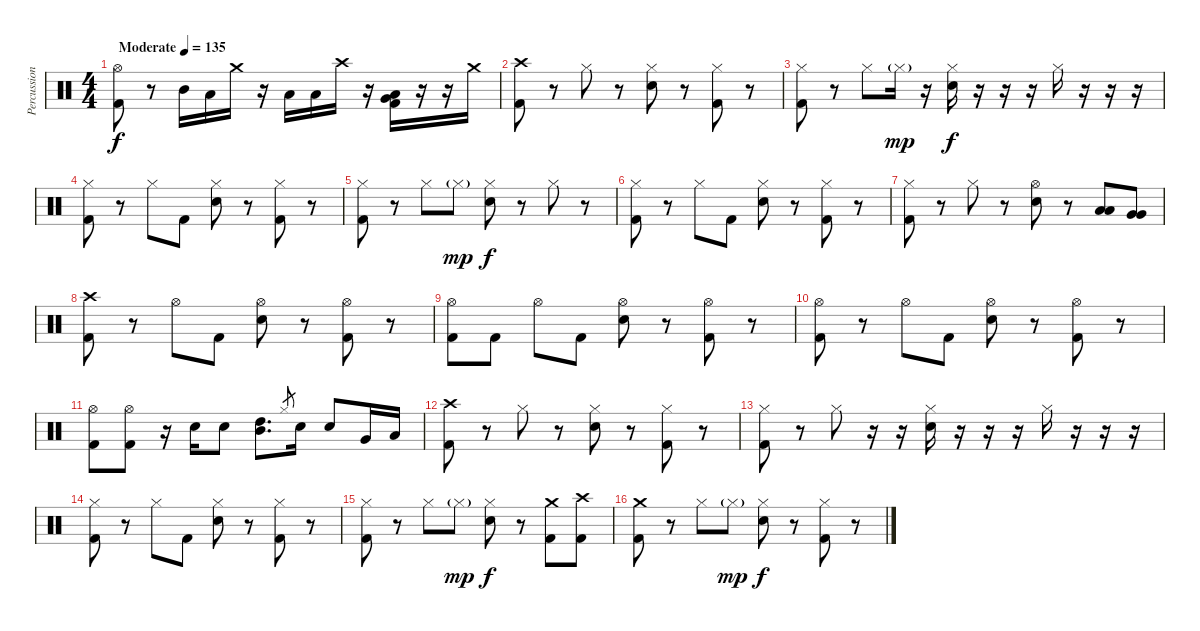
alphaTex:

\track ("Percussion" "Percussion") {instrument percussion}
\staff {score}
\articulation defaults
\ts (4 4)
\tempo (135 "Moderate")
\clef neutral
\ks c
("Hi-Hat (open)" "Kick (hit) 2").8{dy f} r.8 "Mid Tom (hit)".16 "Low Tom (hit)".16 "Crash medium (hit)".16 r.16 "Low Tom (hit)".16 "Low Tom (hit)".16 "Crash high (hit)".16 r.16 ("Low Tom (hit)" "Very Low Tom (hit)" "Kick (hit) 2").16 r.16 r.16 "Crash medium (hit)".16 |
("Crash high (hit)" "Kick (hit) 2").8 r.8 "Hi-Hat (closed)".8 r.8 ("Hi-Hat (closed)" "Electric Snare (hit)").8 r.8 ("Hi-Hat (closed)" "Kick (hit) 2").8 r.8 |
("Hi-Hat (closed)" "Kick (hit) 2").8 r.8 "Hi-Hat (closed)".8 "Hi-Hat (closed)"{g}.16{dy mp} r.16 ("Hi-Hat (closed)" "Electric Snare (hit)").16{dy f} r.16 r.16 r.16 "Hi-Hat (closed)".16 r.16 r.16 r.16 |
("Hi-Hat (closed)" "Kick (hit) 2").8 r.8 "Hi-Hat (closed)".8 "Kick (hit) 2".8 ("Hi-Hat (closed)" "Electric Snare (hit)").8 r.8 ("Hi-Hat (closed)" "Kick (hit) 2").8 r.8 |
("Hi-Hat (closed)" "Kick (hit) 2").8 r.8 "Hi-Hat (closed)".8 "Hi-Hat (closed)"{g}.8{dy mp} ("Hi-Hat (closed)" "Electric Snare (hit)").8{dy f} r.8 "Hi-Hat (closed)".8 r.8 |
("Hi-Hat (closed)" "Kick (hit) 2").8 r.8 "Hi-Hat (closed)".8 "Kick (hit) 2".8 ("Hi-Hat (closed)" "Electric Snare (hit)").8 r.8 ("Hi-Hat (closed)" "Kick (hit) 2").8 r.8 |
("Hi-Hat (closed)" "Kick (hit) 2").8 r.8 "Hi-Hat (closed)".8 r.8 ("Hi-Hat (open)" "Electric Snare (hit)").8 r.8 ("Low Tom (hit)" "Low Tom (hit)").8 ("Very Low Tom (hit)" "Very Low Tom (hit)").8 |
("Crash high (hit)" "Kick (hit) 2").8 r.8 "Hi-Hat (open)".8 "Kick (hit) 2".8 ("Hi-Hat (open)" "Electric Snare (hit)").8 r.8 ("Hi-Hat (open)" "Kick (hit) 2").8 r.8 |
("Hi-Hat (open)" "Kick (hit) 2").8 "Kick (hit) 2".8 "Hi-Hat (open)".8 "Kick (hit) 2".8 ("Hi-Hat (open)" "Electric Snare (hit)").8 r.8 ("Hi-Hat (open)" "Kick (hit) 2").8 r.8 |
("Hi-Hat (open)" "Kick (hit) 2").8 r.8 "Hi-Hat (open)".8 "Kick (hit) 2".8 ("Hi-Hat (open)" "Electric Snare (hit)").8 r.8 ("Hi-Hat (open)" "Kick (hit) 2").8 r.8 |
("Hi-Hat (open)" "Kick (hit) 2").8 ("Hi-Hat (open)" "Kick (hit) 2").8 r.16 "Electric Snare (hit)".16 "Electric Snare (hit)".8 ("High Tom (hit)" "Mid Tom (hit)").8{d} "Hi-Hat (closed)".8{gr} "Electric Snare (hit)".16 "Electric Snare (hit)".8 "Very Low Tom (hit)".16 "Low Floor Tom (hit)".16 |
("Crash high (hit)" "Kick (hit) 2").8 r.8 "Hi-Hat (closed)".8 r.8 ("Hi-Hat (closed)" "Electric Snare (hit)").8 r.8 ("Hi-Hat (closed)" "Kick (hit) 2").8 r.8 |
("Hi-Hat (closed)" "Kick (hit) 2").8 r.8 "Hi-Hat (closed)".8 r.16 r.16 ("Hi-Hat (closed)" "Electric Snare (hit)").16 r.16 r.16 r.16 "Hi-Hat (closed)".16 r.16 r.16 r.16 |
("Hi-Hat (closed)" "Kick (hit) 2").8 r.8 "Hi-Hat (closed)".8 "Kick (hit) 2".8 ("Hi-Hat (closed)" "Electric Snare (hit)").8 r.8 ("Hi-Hat (closed)" "Kick (hit) 2").8 r.8 |
("Hi-Hat (closed)" "Kick (hit) 2").8 r.8 "Hi-Hat (closed)".8 "Hi-Hat (closed)"{g}.8{dy mp} ("Hi-Hat (closed)" "Electric Snare (hit)").8{dy f} r.8 ("Crash medium (hit)" "Kick (hit) 2").8 ("Crash high (hit)" "Kick (hit) 2").8 |
("Crash medium (hit)" "Kick (hit) 2").8 r.8 "Hi-Hat (closed)".8 "Hi-Hat (closed)"{g}.8{dy mp} ("Hi-Hat (closed)" "Electric Snare (hit)").8{dy f} r.8 ("Hi-Hat (closed)" "Kick (hit) 2").8 r.8
